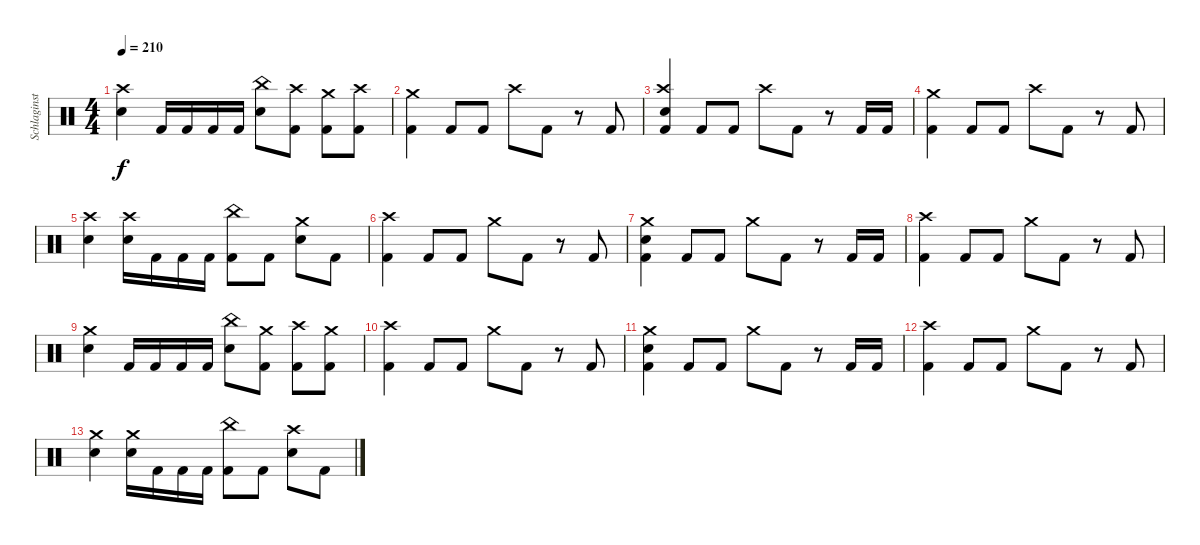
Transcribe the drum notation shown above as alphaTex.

\track ("Schlaginstrumente - Auswahl" "Schlaginst") {instrument percussion}
\staff {score}
\articulation defaults
\ts (4 4)
\tempo 210
\clef neutral
\ks c
("Snare (hit) 2" "Crash high (hit)").4{dy f} "Kick (hit) 2".16 "Kick (hit) 2".16 "Kick (hit) 2".16 "Kick (hit) 2".16 ("China (hit)" "Snare (hit) 2").8 ("Crash high (hit)" "Kick (hit) 2").8 ("Crash medium (hit)" "Kick (hit) 2").8 ("Crash high (hit)" "Kick (hit) 2").8 |
("Crash medium (hit)" "Kick (hit) 2").4 "Kick (hit) 2".8 "Kick (hit) 2".8 "Crash high (hit)".8 "Kick (hit) 2".8 r.8 "Kick (hit) 2".8 |
("Snare (hit) 2" "Crash high (hit)" "Kick (hit) 2").4 "Kick (hit) 2".8 "Kick (hit) 2".8 "Crash high (hit)".8 "Kick (hit) 2".8 r.8 "Kick (hit) 2".16 "Kick (hit) 2".16 |
("Crash medium (hit)" "Kick (hit) 2").4 "Kick (hit) 2".8 "Kick (hit) 2".8 "Crash high (hit)".8 "Kick (hit) 2".8 r.8 "Kick (hit) 2".8 |
("Snare (hit) 2" "Crash high (hit)").4 ("Crash high (hit)" "Snare (hit) 2").16 "Kick (hit) 2".16 "Kick (hit) 2".16 "Kick (hit) 2".16 ("China (hit)" "Kick (hit) 2").8 "Kick (hit) 2".8 ("Crash medium (hit)" "Snare (hit) 2").8 "Kick (hit) 2".8 |
("Crash high (hit)" "Kick (hit) 2").4 "Kick (hit) 2".8 "Kick (hit) 2".8 "Crash medium (hit)".8 "Kick (hit) 2".8 r.8 "Kick (hit) 2".8 |
("Snare (hit) 2" "Crash medium (hit)" "Kick (hit) 2").4 "Kick (hit) 2".8 "Kick (hit) 2".8 "Crash medium (hit)".8 "Kick (hit) 2".8 r.8 "Kick (hit) 2".16 "Kick (hit) 2".16 |
("Crash high (hit)" "Kick (hit) 2").4 "Kick (hit) 2".8 "Kick (hit) 2".8 "Crash medium (hit)".8 "Kick (hit) 2".8 r.8 "Kick (hit) 2".8 |
("Snare (hit) 2" "Crash medium (hit)").4 "Kick (hit) 2".16 "Kick (hit) 2".16 "Kick (hit) 2".16 "Kick (hit) 2".16 ("China (hit)" "Snare (hit) 2").8 ("Crash medium (hit)" "Kick (hit) 2").8 ("Crash high (hit)" "Kick (hit) 2").8 ("Crash medium (hit)" "Kick (hit) 2").8 |
("Crash high (hit)" "Kick (hit) 2").4 "Kick (hit) 2".8 "Kick (hit) 2".8 "Crash medium (hit)".8 "Kick (hit) 2".8 r.8 "Kick (hit) 2".8 |
("Snare (hit) 2" "Crash medium (hit)" "Kick (hit) 2").4 "Kick (hit) 2".8 "Kick (hit) 2".8 "Crash medium (hit)".8 "Kick (hit) 2".8 r.8 "Kick (hit) 2".16 "Kick (hit) 2".16 |
("Crash high (hit)" "Kick (hit) 2").4 "Kick (hit) 2".8 "Kick (hit) 2".8 "Crash medium (hit)".8 "Kick (hit) 2".8 r.8 "Kick (hit) 2".8 |
("Snare (hit) 2" "Crash medium (hit)").4 ("Crash medium (hit)" "Snare (hit) 2").16 "Kick (hit) 2".16 "Kick (hit) 2".16 "Kick (hit) 2".16 ("China (hit)" "Kick (hit) 2").8 "Kick (hit) 2".8 ("Crash high (hit)" "Snare (hit) 2").8 "Kick (hit) 2".8
